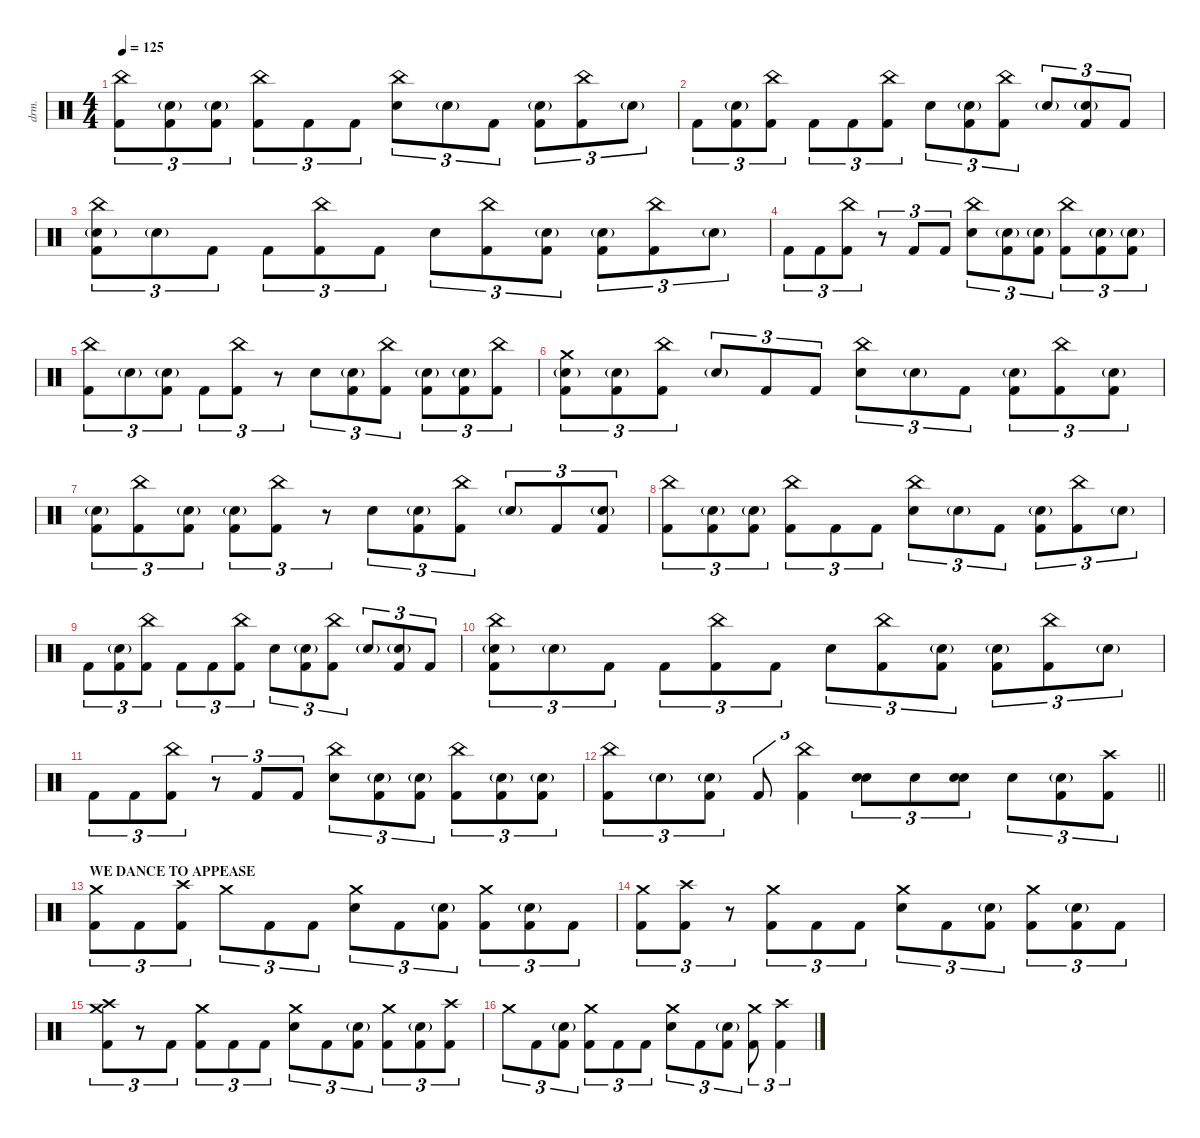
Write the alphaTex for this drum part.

\defaultSystemsLayout 4
\hideDynamics
\bracketExtendMode nobrackets
\track ("DRUMS (Thomas Haake)" "drm.") {instrument percussion}
\staff {score}
\articulation defaults
\ts (4 4)
\tempo 125
\clef neutral
\ks c
("China (hit)" "Kick (hit) 2").8{tu (3 2) dy f} ("Snare (hit) 2"{g} "Kick (hit) 2").8{tu (3 2)} ("Snare (hit) 2"{g} "Kick (hit) 2").8{tu (3 2)} ("China (hit)" "Kick (hit) 2").8{tu (3 2)} "Kick (hit) 2".8{tu (3 2)} "Kick (hit) 2".8{tu (3 2)} ("China (hit)" "Snare (hit) 2").8{tu (3 2)} "Snare (hit) 2"{g}.8{tu (3 2) dy p} "Kick (hit) 2".8{tu (3 2) dy f} ("Snare (hit) 2"{g} "Kick (hit) 2").8{tu (3 2)} ("China (hit)" "Kick (hit) 2").8{tu (3 2)} "Snare (hit) 2"{g}.8{tu (3 2) dy p} |
"Kick (hit) 2".8{tu (3 2) dy f} ("Snare (hit) 2"{g} "Kick (hit) 2").8{tu (3 2)} ("China (hit)" "Kick (hit) 2").8{tu (3 2)} "Kick (hit) 2".8{tu (3 2)} "Kick (hit) 2".8{tu (3 2)} ("China (hit)" "Kick (hit) 2").8{tu (3 2)} "Snare (hit) 2".8{tu (3 2)} ("Snare (hit) 2"{g} "Kick (hit) 2").8{tu (3 2)} ("China (hit)" "Kick (hit) 2").8{tu (3 2)} "Snare (hit) 2"{g}.8{tu (3 2) dy p} ("Snare (hit) 2"{g} "Kick (hit) 2").8{tu (3 2) dy f} "Kick (hit) 2".8{tu (3 2)} |
("China (hit)" "Snare (hit) 2"{g} "Kick (hit) 2").8{tu (3 2)} "Snare (hit) 2"{g}.8{tu (3 2) dy p} "Kick (hit) 2".8{tu (3 2) dy f} "Kick (hit) 2".8{tu (3 2)} ("China (hit)" "Kick (hit) 2").8{tu (3 2)} "Kick (hit) 2".8{tu (3 2)} "Snare (hit) 2".8{tu (3 2)} ("China (hit)" "Kick (hit) 2").8{tu (3 2)} ("Snare (hit) 2"{g} "Kick (hit) 2").8{tu (3 2)} ("Snare (hit) 2"{g} "Kick (hit) 2").8{tu (3 2)} ("China (hit)" "Kick (hit) 2").8{tu (3 2)} "Snare (hit) 2"{g}.8{tu (3 2) dy p} |
"Kick (hit) 2".8{tu (3 2) dy f} "Kick (hit) 2".8{tu (3 2)} ("China (hit)" "Kick (hit) 2").8{tu (3 2)} r.8{tu (3 2)} "Kick (hit) 2".8{tu (3 2)} "Kick (hit) 2".8{tu (3 2)} ("China (hit)" "Snare (hit) 2").8{tu (3 2)} ("Snare (hit) 2"{g} "Kick (hit) 2").8{tu (3 2)} ("Snare (hit) 2"{g} "Kick (hit) 2").8{tu (3 2)} ("China (hit)" "Kick (hit) 2").8{tu (3 2)} ("Snare (hit) 2"{g} "Kick (hit) 2").8{tu (3 2)} ("Snare (hit) 2"{g} "Kick (hit) 2").8{tu (3 2)} |
("China (hit)" "Kick (hit) 2").8{tu (3 2)} "Snare (hit) 2"{g}.8{tu (3 2) dy p} ("Snare (hit) 2"{g} "Kick (hit) 2").8{tu (3 2) dy f} "Kick (hit) 2".8{tu (3 2)} ("China (hit)" "Kick (hit) 2").8{tu (3 2)} r.8{tu (3 2)} "Snare (hit) 2".8{tu (3 2)} ("Snare (hit) 2"{g} "Kick (hit) 2").8{tu (3 2)} ("China (hit)" "Kick (hit) 2").8{tu (3 2)} ("Snare (hit) 2"{g} "Kick (hit) 2").8{tu (3 2)} ("Snare (hit) 2"{g} "Kick (hit) 2").8{tu (3 2)} ("China (hit)" "Kick (hit) 2").8{tu (3 2)} |
("Crash medium (hit)" "Snare (hit) 2"{g} "Kick (hit) 2").8{tu (3 2) dy mp} ("Snare (hit) 2"{g} "Kick (hit) 2").8{tu (3 2) dy f} ("China (hit)" "Kick (hit) 2").8{tu (3 2)} "Snare (hit) 2"{g}.8{tu (3 2) dy p} "Kick (hit) 2".8{tu (3 2) dy f} "Kick (hit) 2".8{tu (3 2)} ("China (hit)" "Snare (hit) 2").8{tu (3 2)} "Snare (hit) 2"{g}.8{tu (3 2) dy p} "Kick (hit) 2".8{tu (3 2) dy f} ("Snare (hit) 2"{g} "Kick (hit) 2").8{tu (3 2)} ("China (hit)" "Kick (hit) 2").8{tu (3 2)} ("Snare (hit) 2"{g} "Kick (hit) 2").8{tu (3 2)} |
("Snare (hit) 2"{g} "Kick (hit) 2").8{tu (3 2)} ("China (hit)" "Kick (hit) 2").8{tu (3 2)} ("Snare (hit) 2"{g} "Kick (hit) 2").8{tu (3 2)} ("Snare (hit) 2"{g} "Kick (hit) 2").8{tu (3 2)} ("China (hit)" "Kick (hit) 2").8{tu (3 2)} r.8{tu (3 2)} "Snare (hit) 2".8{tu (3 2)} ("Snare (hit) 2"{g} "Kick (hit) 2").8{tu (3 2)} ("China (hit)" "Kick (hit) 2").8{tu (3 2)} "Snare (hit) 2"{g}.8{tu (3 2) dy p} "Kick (hit) 2".8{tu (3 2) dy f} ("Snare (hit) 2"{g} "Kick (hit) 2").8{tu (3 2)} |
("China (hit)" "Kick (hit) 2").8{tu (3 2)} ("Snare (hit) 2"{g} "Kick (hit) 2").8{tu (3 2)} ("Snare (hit) 2"{g} "Kick (hit) 2").8{tu (3 2)} ("China (hit)" "Kick (hit) 2").8{tu (3 2)} "Kick (hit) 2".8{tu (3 2)} "Kick (hit) 2".8{tu (3 2)} ("China (hit)" "Snare (hit) 2").8{tu (3 2)} "Snare (hit) 2"{g}.8{tu (3 2) dy p} "Kick (hit) 2".8{tu (3 2) dy f} ("Snare (hit) 2"{g} "Kick (hit) 2").8{tu (3 2)} ("China (hit)" "Kick (hit) 2").8{tu (3 2)} "Snare (hit) 2"{g}.8{tu (3 2) dy p} |
"Kick (hit) 2".8{tu (3 2) dy f} ("Snare (hit) 2"{g} "Kick (hit) 2").8{tu (3 2)} ("China (hit)" "Kick (hit) 2").8{tu (3 2)} "Kick (hit) 2".8{tu (3 2)} "Kick (hit) 2".8{tu (3 2)} ("China (hit)" "Kick (hit) 2").8{tu (3 2) dy mf} "Snare (hit) 2".8{tu (3 2) dy f} ("Snare (hit) 2"{g} "Kick (hit) 2").8{tu (3 2)} ("China (hit)" "Kick (hit) 2").8{tu (3 2)} "Snare (hit) 2"{g}.8{tu (3 2) dy p} ("Snare (hit) 2"{g} "Kick (hit) 2").8{tu (3 2) dy f} "Kick (hit) 2".8{tu (3 2)} |
("China (hit)" "Snare (hit) 2"{g} "Kick (hit) 2").8{tu (3 2)} "Snare (hit) 2"{g}.8{tu (3 2) dy p} "Kick (hit) 2".8{tu (3 2) dy f} "Kick (hit) 2".8{tu (3 2)} ("China (hit)" "Kick (hit) 2").8{tu (3 2)} "Kick (hit) 2".8{tu (3 2)} "Snare (hit) 2".8{tu (3 2)} ("China (hit)" "Kick (hit) 2").8{tu (3 2)} ("Snare (hit) 2"{g} "Kick (hit) 2").8{tu (3 2)} ("Snare (hit) 2"{g} "Kick (hit) 2").8{tu (3 2)} ("China (hit)" "Kick (hit) 2").8{tu (3 2)} "Snare (hit) 2"{g}.8{tu (3 2) dy p} |
"Kick (hit) 2".8{tu (3 2) dy f} "Kick (hit) 2".8{tu (3 2)} ("China (hit)" "Kick (hit) 2").8{tu (3 2)} r.8{tu (3 2)} "Kick (hit) 2".8{tu (3 2)} "Kick (hit) 2".8{tu (3 2)} ("China (hit)" "Snare (hit) 2").8{tu (3 2)} ("Snare (hit) 2"{g} "Kick (hit) 2").8{tu (3 2)} ("Snare (hit) 2"{g} "Kick (hit) 2").8{tu (3 2)} ("China (hit)" "Kick (hit) 2").8{tu (3 2)} ("Snare (hit) 2"{g} "Kick (hit) 2").8{tu (3 2)} ("Snare (hit) 2"{g} "Kick (hit) 2").8{tu (3 2)} |
\barLineRight lightlight
("China (hit)" "Kick (hit) 2").8{tu (3 2)} "Snare (hit) 2"{g}.8{tu (3 2) dy p} ("Snare (hit) 2"{g} "Kick (hit) 2").8{tu (3 2) dy f} "Kick (hit) 2".8{tu (3 2)} ("China (hit)" "Kick (hit) 2").4{tu (3 2)} ("Snare (hit) 2" "Snare (hit) 2").8{tu (3 2) dy mf} "Snare (hit) 2".8{tu (3 2) dy f} ("Snare (hit) 2" "Snare (hit) 2").8{tu (3 2) dy mf} "Snare (hit) 2".8{tu (3 2) dy f} ("Snare (hit) 2"{g} "Kick (hit) 2").8{tu (3 2)} ("Crash high (hit)" "Kick (hit) 2").8{tu (3 2)} |
\section ("" "WE DANCE TO APPEASE")
("Crash medium (hit)" "Kick (hit) 2").8{tu (3 2)} "Kick (hit) 2".8{tu (3 2)} ("Crash high (hit)" "Kick (hit) 2").8{tu (3 2) dy mf} "Crash medium (hit)".8{tu (3 2) dy f} "Kick (hit) 2".8{tu (3 2)} "Kick (hit) 2".8{tu (3 2)} ("Crash medium (hit)" "Snare (hit) 2").8{tu (3 2)} "Kick (hit) 2".8{tu (3 2)} ("Snare (hit) 2"{g} "Kick (hit) 2").8{tu (3 2)} ("Crash medium (hit)" "Kick (hit) 2").8{tu (3 2)} ("Snare (hit) 2"{g} "Kick (hit) 2").8{tu (3 2)} "Kick (hit) 2".8{tu (3 2)} |
("Crash medium (hit)" "Kick (hit) 2").8{tu (3 2)} ("Crash high (hit)" "Kick (hit) 2").8{tu (3 2) dy mf} r.8{tu (3 2)} ("Crash medium (hit)" "Kick (hit) 2").8{tu (3 2) dy f} "Kick (hit) 2".8{tu (3 2)} "Kick (hit) 2".8{tu (3 2)} ("Crash medium (hit)" "Snare (hit) 2").8{tu (3 2)} "Kick (hit) 2".8{tu (3 2)} ("Snare (hit) 2"{g} "Kick (hit) 2").8{tu (3 2)} ("Crash medium (hit)" "Kick (hit) 2").8{tu (3 2)} ("Snare (hit) 2"{g} "Kick (hit) 2").8{tu (3 2)} "Kick (hit) 2".8{tu (3 2)} |
("Crash medium (hit)" "Crash high (hit)" "Kick (hit) 2").8{tu (3 2)} r.8{tu (3 2)} "Kick (hit) 2".8{tu (3 2)} ("Crash medium (hit)" "Kick (hit) 2").8{tu (3 2)} "Kick (hit) 2".8{tu (3 2)} "Kick (hit) 2".8{tu (3 2)} ("Crash medium (hit)" "Snare (hit) 2").8{tu (3 2)} "Kick (hit) 2".8{tu (3 2)} ("Snare (hit) 2"{g} "Kick (hit) 2").8{tu (3 2)} ("Crash medium (hit)" "Kick (hit) 2").8{tu (3 2)} ("Snare (hit) 2"{g} "Kick (hit) 2").8{tu (3 2)} ("Crash high (hit)" "Kick (hit) 2").8{tu (3 2) dy mf} |
"Crash medium (hit)".8{tu (3 2) dy f} "Kick (hit) 2".8{tu (3 2)} ("Snare (hit) 2"{g} "Kick (hit) 2").8{tu (3 2)} ("Crash medium (hit)" "Kick (hit) 2").8{tu (3 2)} "Kick (hit) 2".8{tu (3 2)} "Kick (hit) 2".8{tu (3 2)} ("Crash medium (hit)" "Snare (hit) 2").8{tu (3 2)} "Kick (hit) 2".8{tu (3 2)} ("Snare (hit) 2"{g} "Kick (hit) 2").8{tu (3 2)} ("Crash medium (hit)" "Kick (hit) 2").8{tu (3 2)} ("Crash high (hit)" "Kick (hit) 2").4{tu (3 2)}
